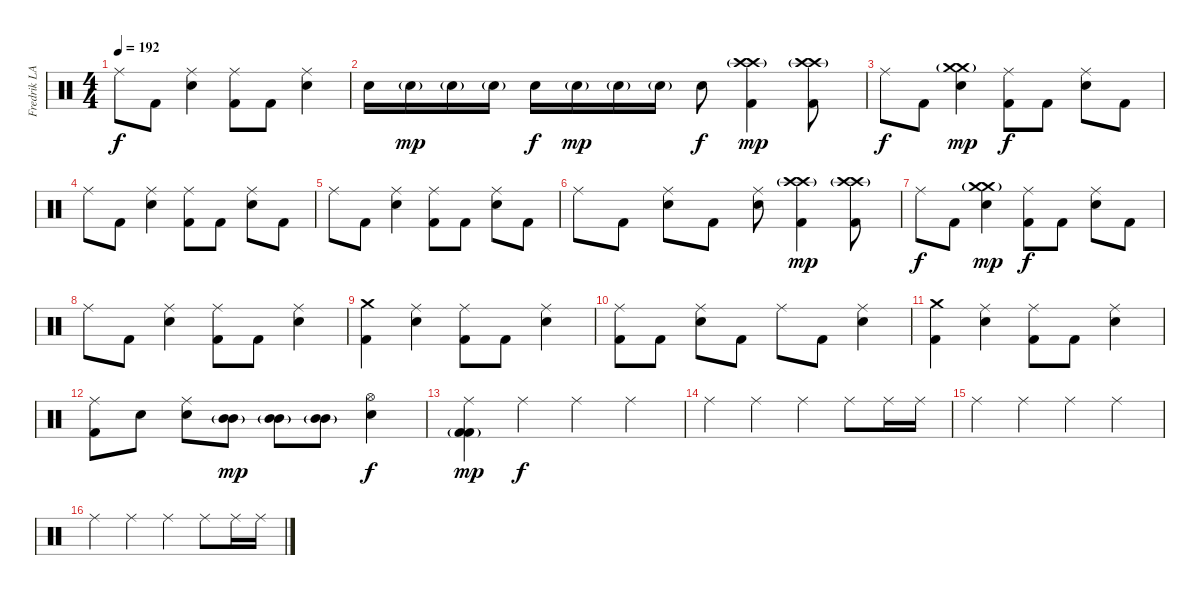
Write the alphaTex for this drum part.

\track ("Fredrik LARZON" "Fredrik LA") {instrument percussion}
\staff {score}
\articulation defaults
\ts (4 4)
\tempo 192
\clef neutral
\ks c "Ride (middle)".8{dy f} "Kick (hit) 2".8
("Ride (middle)" "Electric Snare (hit)").4 ("Ride (middle)" "Kick (hit) 2").8 "Kick (hit) 2".8 ("Ride (middle)" "Electric Snare (hit)").4 |
"Electric Snare (hit)".16 "Electric Snare (hit)"{g}.16{dy mp} "Electric Snare (hit)"{g}.16 "Electric Snare (hit)"{g}.16 "Electric Snare (hit)".16{dy f} "Electric Snare (hit)"{g}.16{dy mp} "Electric Snare (hit)"{g}.16 "Electric Snare (hit)"{g}.16 "Electric Snare (hit)".8{dy f} ("Crash high (hit)" "Crash high (hit)"{g} "Kick (hit) 2").4{dy mp} ("Crash high (hit)" "Crash high (hit)"{g} "Kick (hit) 2").8 |
"Ride (middle)".8{dy f} "Kick (hit) 2".8 ("Crash medium (hit)" "Electric Snare (hit)" "Crash medium (hit)"{g}).4{dy mp} ("Ride (middle)" "Kick (hit) 2").8{dy f} "Kick (hit) 2".8 ("Ride (middle)" "Electric Snare (hit)").8 "Kick (hit) 2".8 |
"Ride (middle)".8 "Kick (hit) 2".8 ("Ride (middle)" "Electric Snare (hit)").4 ("Ride (middle)" "Kick (hit) 2").8 "Kick (hit) 2".8 ("Ride (middle)" "Electric Snare (hit)").8 "Kick (hit) 2".8 |
"Ride (middle)".8 "Kick (hit) 2".8 ("Ride (middle)" "Electric Snare (hit)").4 ("Ride (middle)" "Kick (hit) 2").8 "Kick (hit) 2".8 ("Ride (middle)" "Electric Snare (hit)").8 "Kick (hit) 2".8 |
"Ride (middle)".8 "Kick (hit) 2".8 ("Ride (middle)" "Electric Snare (hit)").8 "Kick (hit) 2".8 ("Ride (middle)" "Electric Snare (hit)").8 ("Crash high (hit)" "Crash high (hit)"{g} "Kick (hit) 2").4{dy mp} ("Crash high (hit)" "Crash high (hit)"{g} "Kick (hit) 2").8 |
"Ride (middle)".8{dy f} "Kick (hit) 2".8 ("Crash medium (hit)" "Electric Snare (hit)" "Crash medium (hit)"{g}).4{dy mp} ("Ride (middle)" "Kick (hit) 2").8{dy f} "Kick (hit) 2".8 ("Ride (middle)" "Electric Snare (hit)").8 "Kick (hit) 2".8 |
"Ride (middle)".8 "Kick (hit) 2".8 ("Ride (middle)" "Electric Snare (hit)").4 ("Ride (middle)" "Kick (hit) 2").8 "Kick (hit) 2".8 ("Ride (middle)" "Electric Snare (hit)").4 |
("Crash medium (hit)" "Kick (hit) 2").4 ("Ride (middle)" "Electric Snare (hit)").4 ("Ride (middle)" "Kick (hit) 2").8 "Kick (hit) 2".8 ("Ride (middle)" "Electric Snare (hit)").4 |
("Ride (middle)" "Kick (hit) 2").8 "Kick (hit) 2".8 ("Ride (middle)" "Electric Snare (hit)").8 "Kick (hit) 2".8 "Ride (middle)".8 "Kick (hit) 2".8 ("Ride (middle)" "Electric Snare (hit)").4 |
("Crash medium (hit)" "Kick (hit) 2").4 ("Ride (middle)" "Electric Snare (hit)").4 ("Ride (middle)" "Kick (hit) 2").8 "Kick (hit) 2".8 ("Ride (middle)" "Electric Snare (hit)").4 |
("Ride (middle)" "Kick (hit) 2").8 "Electric Snare (hit)".8 ("Ride (middle)" "Electric Snare (hit)").8 ("Mid Tom (hit)" "Mid Tom (hit)"{g}).8{dy mp} ("Mid Tom (hit)" "Mid Tom (hit)"{g}).8 ("Mid Tom (hit)" "Mid Tom (hit)"{g}).8 ("Hi-Hat (open)" "Electric Snare (hit)").4{dy f} |
("Ride (middle)" "Kick (hit) 2"{g} "Kick (hit) 2").4{dy mp} "Ride (middle)".4{dy f} "Ride (middle)".4 "Ride (middle)".4 |
"Ride (middle)".4 "Ride (middle)".4 "Ride (middle)".4 "Ride (middle)".8 "Ride (middle)".16 "Ride (middle)".16 |
"Ride (middle)".4 "Ride (middle)".4 "Ride (middle)".4 "Ride (middle)".4 |
"Ride (middle)".4 "Ride (middle)".4 "Ride (middle)".4 "Ride (middle)".8 "Ride (middle)".16 "Ride (middle)".16
